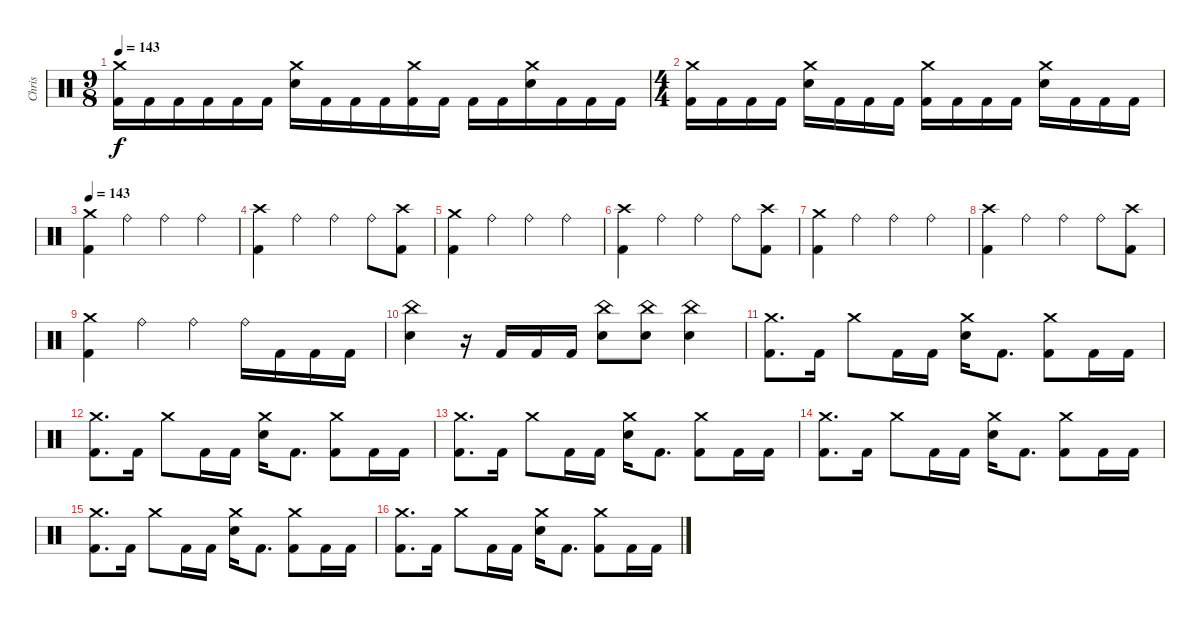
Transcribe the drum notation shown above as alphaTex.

\track ("Chris" "Chris") {instrument percussion}
\staff {score}
\articulation defaults
\ts (9 8)
\tempo 143
\clef neutral
\ks c
("Crash medium (hit)" "Kick (hit) 2").16{dy f} "Kick (hit) 2".16 "Kick (hit) 2".16 "Kick (hit) 2".16 "Kick (hit) 2".16 "Kick (hit) 2".16 ("Crash medium (hit)" "Electric Snare (hit)").16 "Kick (hit) 2".16 "Kick (hit) 2".16 "Kick (hit) 2".16 ("Crash medium (hit)" "Kick (hit) 2").16 "Kick (hit) 2".16 "Kick (hit) 2".16 "Kick (hit) 2".16 ("Crash medium (hit)" "Electric Snare (hit)").16 "Kick (hit) 2".16 "Kick (hit) 2".16 "Kick (hit) 2".16 |
\ts (4 4)
("Crash medium (hit)" "Kick (hit) 2").16 "Kick (hit) 2".16 "Kick (hit) 2".16 "Kick (hit) 2".16 ("Crash medium (hit)" "Electric Snare (hit)").16 "Kick (hit) 2".16 "Kick (hit) 2".16 "Kick (hit) 2".16 ("Crash medium (hit)" "Kick (hit) 2").16 "Kick (hit) 2".16 "Kick (hit) 2".16 "Kick (hit) 2".16 ("Crash medium (hit)" "Electric Snare (hit)").16 "Kick (hit) 2".16 "Kick (hit) 2".16 "Kick (hit) 2".16 |
\tempo 143
("Crash medium (hit)" "Kick (hit) 2").4 "Ride (bell)".4 "Ride (bell)".4 "Ride (bell)".4 |
("Crash high (hit)" "Kick (hit) 2").4 "Ride (bell)".4 "Ride (bell)".4 "Ride (bell)".8 ("Crash high (hit)" "Kick (hit) 2").8 |
("Crash medium (hit)" "Kick (hit) 2").4 "Ride (bell)".4 "Ride (bell)".4 "Ride (bell)".4 |
("Crash high (hit)" "Kick (hit) 2").4 "Ride (bell)".4 "Ride (bell)".4 "Ride (bell)".8 ("Crash high (hit)" "Kick (hit) 2").8 |
("Crash medium (hit)" "Kick (hit) 2").4 "Ride (bell)".4 "Ride (bell)".4 "Ride (bell)".4 |
("Crash high (hit)" "Kick (hit) 2").4 "Ride (bell)".4 "Ride (bell)".4 "Ride (bell)".8 ("Crash high (hit)" "Kick (hit) 2").8 |
("Crash medium (hit)" "Kick (hit) 2").4 "Ride (bell)".4 "Ride (bell)".4 "Ride (bell)".16 "Kick (hit) 2".16 "Kick (hit) 2".16 "Kick (hit) 2".16 |
("China (hit)" "Electric Snare (hit)").4 r.16 "Kick (hit) 2".16 "Kick (hit) 2".16 "Kick (hit) 2".16 ("China (hit)" "Electric Snare (hit)").8 ("China (hit)" "Electric Snare (hit)").8 ("China (hit)" "Electric Snare (hit)").4 |
("Crash medium (hit)" "Kick (hit) 2").8{d} "Kick (hit) 2".16 "Crash medium (hit)".8 "Kick (hit) 2".16 "Kick (hit) 2".16 ("Crash medium (hit)" "Electric Snare (hit)").16 "Kick (hit) 2".8{d} ("Crash medium (hit)" "Kick (hit) 2").8 "Kick (hit) 2".16 "Kick (hit) 2".16 |
("Crash medium (hit)" "Kick (hit) 2").8{d} "Kick (hit) 2".16 "Crash medium (hit)".8 "Kick (hit) 2".16 "Kick (hit) 2".16 ("Crash medium (hit)" "Electric Snare (hit)").16 "Kick (hit) 2".8{d} ("Crash medium (hit)" "Kick (hit) 2").8 "Kick (hit) 2".16 "Kick (hit) 2".16 |
("Crash medium (hit)" "Kick (hit) 2").8{d} "Kick (hit) 2".16 "Crash medium (hit)".8 "Kick (hit) 2".16 "Kick (hit) 2".16 ("Crash medium (hit)" "Electric Snare (hit)").16 "Kick (hit) 2".8{d} ("Crash medium (hit)" "Kick (hit) 2").8 "Kick (hit) 2".16 "Kick (hit) 2".16 |
("Crash medium (hit)" "Kick (hit) 2").8{d} "Kick (hit) 2".16 "Crash medium (hit)".8 "Kick (hit) 2".16 "Kick (hit) 2".16 ("Crash medium (hit)" "Electric Snare (hit)").16 "Kick (hit) 2".8{d} ("Crash medium (hit)" "Kick (hit) 2").8 "Kick (hit) 2".16 "Kick (hit) 2".16 |
("Crash medium (hit)" "Kick (hit) 2").8{d} "Kick (hit) 2".16 "Crash medium (hit)".8 "Kick (hit) 2".16 "Kick (hit) 2".16 ("Crash medium (hit)" "Electric Snare (hit)").16 "Kick (hit) 2".8{d} ("Crash medium (hit)" "Kick (hit) 2").8 "Kick (hit) 2".16 "Kick (hit) 2".16 |
("Crash medium (hit)" "Kick (hit) 2").8{d} "Kick (hit) 2".16 "Crash medium (hit)".8 "Kick (hit) 2".16 "Kick (hit) 2".16 ("Crash medium (hit)" "Electric Snare (hit)").16 "Kick (hit) 2".8{d} ("Crash medium (hit)" "Kick (hit) 2").8 "Kick (hit) 2".16 "Kick (hit) 2".16
